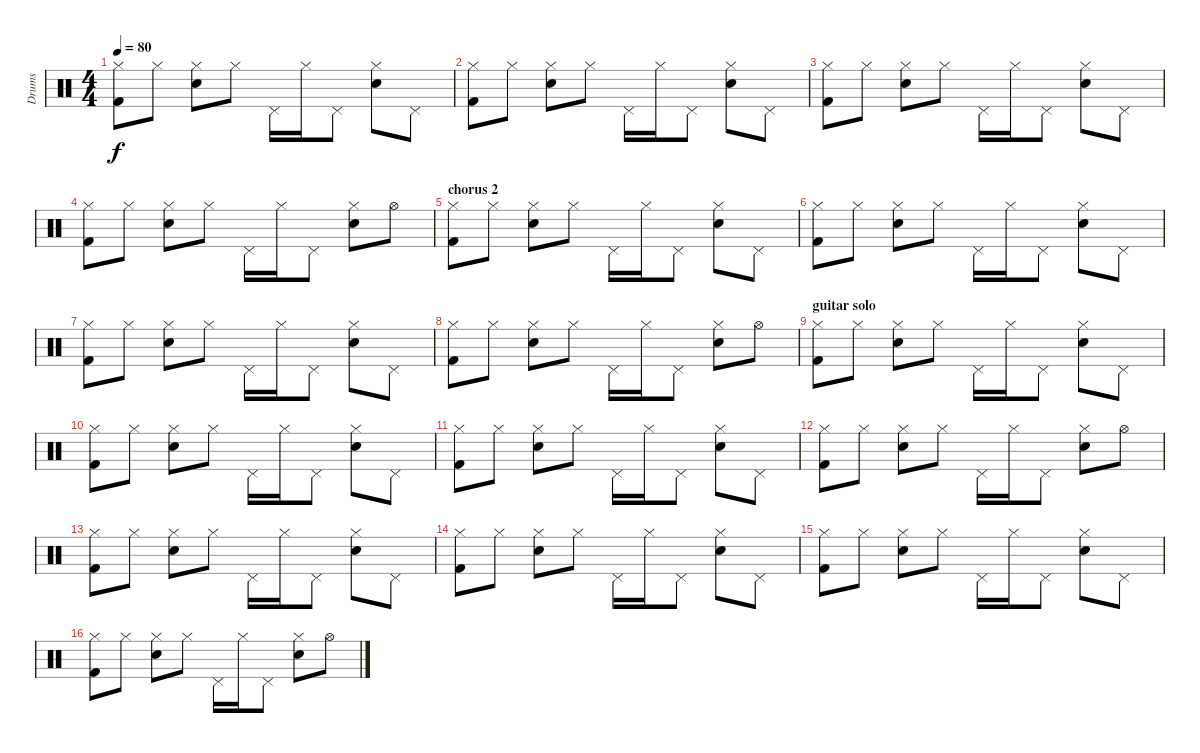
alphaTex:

\track ("Drums" "Drums") {instrument percussion}
\staff {score}
\articulation defaults
\ts (4 4)
\tempo 80
\clef neutral
\ks c
("Kick (hit) 2" "Hi-Hat (closed)").8{dy f} "Hi-Hat (closed)".8 ("Snare (hit) 2" "Hi-Hat (closed)").8 "Hi-Hat (closed)".8 "Pedal Hi-Hat (hit)".16 "Hi-Hat (closed)".16 "Pedal Hi-Hat (hit)".8 ("Snare (hit) 2" "Hi-Hat (closed)").8 "Pedal Hi-Hat (hit)".8 |
("Kick (hit) 2" "Hi-Hat (closed)").8 "Hi-Hat (closed)".8 ("Snare (hit) 2" "Hi-Hat (closed)").8 "Hi-Hat (closed)".8 "Pedal Hi-Hat (hit)".16 "Hi-Hat (closed)".16 "Pedal Hi-Hat (hit)".8 ("Snare (hit) 2" "Hi-Hat (closed)").8 "Pedal Hi-Hat (hit)".8 |
("Kick (hit) 2" "Hi-Hat (closed)").8 "Hi-Hat (closed)".8 ("Snare (hit) 2" "Hi-Hat (closed)").8 "Hi-Hat (closed)".8 "Pedal Hi-Hat (hit)".16 "Hi-Hat (closed)".16 "Pedal Hi-Hat (hit)".8 ("Snare (hit) 2" "Hi-Hat (closed)").8 "Pedal Hi-Hat (hit)".8 |
("Kick (hit) 2" "Hi-Hat (closed)").8 "Hi-Hat (closed)".8 ("Snare (hit) 2" "Hi-Hat (closed)").8 "Hi-Hat (closed)".8 "Pedal Hi-Hat (hit)".16 "Hi-Hat (closed)".16 "Pedal Hi-Hat (hit)".8 ("Snare (hit) 2" "Hi-Hat (closed)").8 "Hi-Hat (open)".8 |
\section ("" "chorus 2")
("Kick (hit) 2" "Hi-Hat (closed)").8 "Hi-Hat (closed)".8 ("Snare (hit) 2" "Hi-Hat (closed)").8 "Hi-Hat (closed)".8 "Pedal Hi-Hat (hit)".16 "Hi-Hat (closed)".16 "Pedal Hi-Hat (hit)".8 ("Snare (hit) 2" "Hi-Hat (closed)").8 "Pedal Hi-Hat (hit)".8 |
("Kick (hit) 2" "Hi-Hat (closed)").8 "Hi-Hat (closed)".8 ("Snare (hit) 2" "Hi-Hat (closed)").8 "Hi-Hat (closed)".8 "Pedal Hi-Hat (hit)".16 "Hi-Hat (closed)".16 "Pedal Hi-Hat (hit)".8 ("Snare (hit) 2" "Hi-Hat (closed)").8 "Pedal Hi-Hat (hit)".8 |
("Kick (hit) 2" "Hi-Hat (closed)").8 "Hi-Hat (closed)".8 ("Snare (hit) 2" "Hi-Hat (closed)").8 "Hi-Hat (closed)".8 "Pedal Hi-Hat (hit)".16 "Hi-Hat (closed)".16 "Pedal Hi-Hat (hit)".8 ("Snare (hit) 2" "Hi-Hat (closed)").8 "Pedal Hi-Hat (hit)".8 |
("Kick (hit) 2" "Hi-Hat (closed)").8 "Hi-Hat (closed)".8 ("Snare (hit) 2" "Hi-Hat (closed)").8 "Hi-Hat (closed)".8 "Pedal Hi-Hat (hit)".16 "Hi-Hat (closed)".16 "Pedal Hi-Hat (hit)".8 ("Snare (hit) 2" "Hi-Hat (closed)").8 "Hi-Hat (open)".8 |
\section ("" "guitar solo")
("Kick (hit) 2" "Hi-Hat (closed)").8 "Hi-Hat (closed)".8 ("Snare (hit) 2" "Hi-Hat (closed)").8 "Hi-Hat (closed)".8 "Pedal Hi-Hat (hit)".16 "Hi-Hat (closed)".16 "Pedal Hi-Hat (hit)".8 ("Snare (hit) 2" "Hi-Hat (closed)").8 "Pedal Hi-Hat (hit)".8 |
("Kick (hit) 2" "Hi-Hat (closed)").8 "Hi-Hat (closed)".8 ("Snare (hit) 2" "Hi-Hat (closed)").8 "Hi-Hat (closed)".8 "Pedal Hi-Hat (hit)".16 "Hi-Hat (closed)".16 "Pedal Hi-Hat (hit)".8 ("Snare (hit) 2" "Hi-Hat (closed)").8 "Pedal Hi-Hat (hit)".8 |
("Kick (hit) 2" "Hi-Hat (closed)").8 "Hi-Hat (closed)".8 ("Snare (hit) 2" "Hi-Hat (closed)").8 "Hi-Hat (closed)".8 "Pedal Hi-Hat (hit)".16 "Hi-Hat (closed)".16 "Pedal Hi-Hat (hit)".8 ("Snare (hit) 2" "Hi-Hat (closed)").8 "Pedal Hi-Hat (hit)".8 |
("Kick (hit) 2" "Hi-Hat (closed)").8 "Hi-Hat (closed)".8 ("Snare (hit) 2" "Hi-Hat (closed)").8 "Hi-Hat (closed)".8 "Pedal Hi-Hat (hit)".16 "Hi-Hat (closed)".16 "Pedal Hi-Hat (hit)".8 ("Snare (hit) 2" "Hi-Hat (closed)").8 "Hi-Hat (open)".8 |
("Kick (hit) 2" "Hi-Hat (closed)").8 "Hi-Hat (closed)".8 ("Snare (hit) 2" "Hi-Hat (closed)").8 "Hi-Hat (closed)".8 "Pedal Hi-Hat (hit)".16 "Hi-Hat (closed)".16 "Pedal Hi-Hat (hit)".8 ("Snare (hit) 2" "Hi-Hat (closed)").8 "Pedal Hi-Hat (hit)".8 |
("Kick (hit) 2" "Hi-Hat (closed)").8 "Hi-Hat (closed)".8 ("Snare (hit) 2" "Hi-Hat (closed)").8 "Hi-Hat (closed)".8 "Pedal Hi-Hat (hit)".16 "Hi-Hat (closed)".16 "Pedal Hi-Hat (hit)".8 ("Snare (hit) 2" "Hi-Hat (closed)").8 "Pedal Hi-Hat (hit)".8 |
("Kick (hit) 2" "Hi-Hat (closed)").8 "Hi-Hat (closed)".8 ("Snare (hit) 2" "Hi-Hat (closed)").8 "Hi-Hat (closed)".8 "Pedal Hi-Hat (hit)".16 "Hi-Hat (closed)".16 "Pedal Hi-Hat (hit)".8 ("Snare (hit) 2" "Hi-Hat (closed)").8 "Pedal Hi-Hat (hit)".8 |
("Kick (hit) 2" "Hi-Hat (closed)").8 "Hi-Hat (closed)".8 ("Snare (hit) 2" "Hi-Hat (closed)").8 "Hi-Hat (closed)".8 "Pedal Hi-Hat (hit)".16 "Hi-Hat (closed)".16 "Pedal Hi-Hat (hit)".8 ("Snare (hit) 2" "Hi-Hat (closed)").8 "Hi-Hat (open)".8
